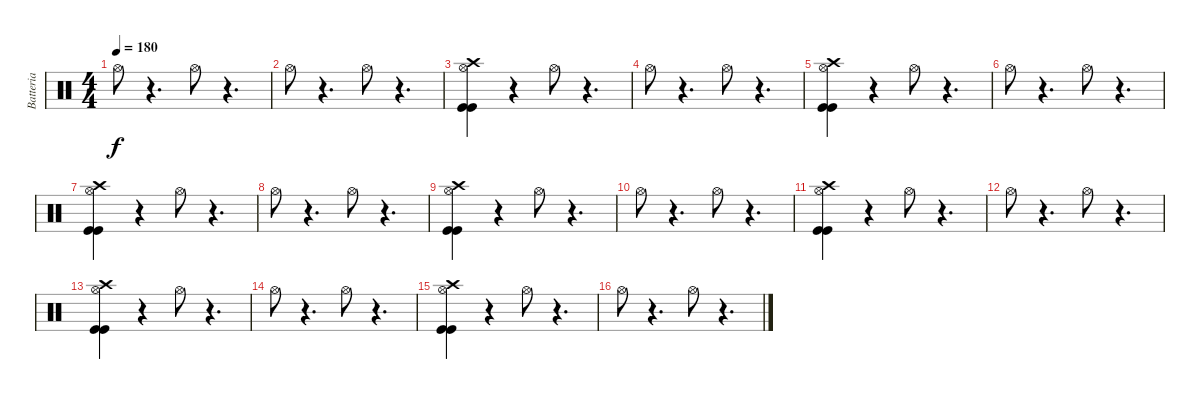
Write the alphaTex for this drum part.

\track ("Batteria" "Batteria") {instrument percussion}
\staff {score}
\articulation defaults
\ts (4 4)
\tempo 180
\clef neutral
\ks c "Hi-Hat (open)".8{dy f}
r.4{d} "Hi-Hat (open)".8 r.4{d} |
"Hi-Hat (open)".8 r.4{d} "Hi-Hat (open)".8 r.4{d} |
("Hi-Hat (open)" "Crash high (hit)" "Kick (hit)" "Kick (hit)").4 r.4 "Hi-Hat (open)".8 r.4{d} |
"Hi-Hat (open)".8 r.4{d} "Hi-Hat (open)".8 r.4{d} |
("Hi-Hat (open)" "Crash high (hit)" "Kick (hit)" "Kick (hit)").4 r.4 "Hi-Hat (open)".8 r.4{d} |
"Hi-Hat (open)".8 r.4{d} "Hi-Hat (open)".8 r.4{d} |
("Hi-Hat (open)" "Crash high (hit)" "Kick (hit)" "Kick (hit)").4 r.4 "Hi-Hat (open)".8 r.4{d} |
"Hi-Hat (open)".8 r.4{d} "Hi-Hat (open)".8 r.4{d} |
("Hi-Hat (open)" "Crash high (hit)" "Kick (hit)" "Kick (hit)").4 r.4 "Hi-Hat (open)".8 r.4{d} |
"Hi-Hat (open)".8 r.4{d} "Hi-Hat (open)".8 r.4{d} |
("Crash high (hit)" "Hi-Hat (open)" "Kick (hit)" "Kick (hit)").4 r.4 "Hi-Hat (open)".8 r.4{d} |
"Hi-Hat (open)".8 r.4{d} "Hi-Hat (open)".8 r.4{d} |
("Hi-Hat (open)" "Crash high (hit)" "Kick (hit)" "Kick (hit)").4 r.4 "Hi-Hat (open)".8 r.4{d} |
"Hi-Hat (open)".8 r.4{d} "Hi-Hat (open)".8 r.4{d} |
("Crash high (hit)" "Hi-Hat (open)" "Kick (hit)" "Kick (hit)").4 r.4 "Hi-Hat (open)".8 r.4{d} |
"Hi-Hat (open)".8 r.4{d} "Hi-Hat (open)".8 r.4{d}
